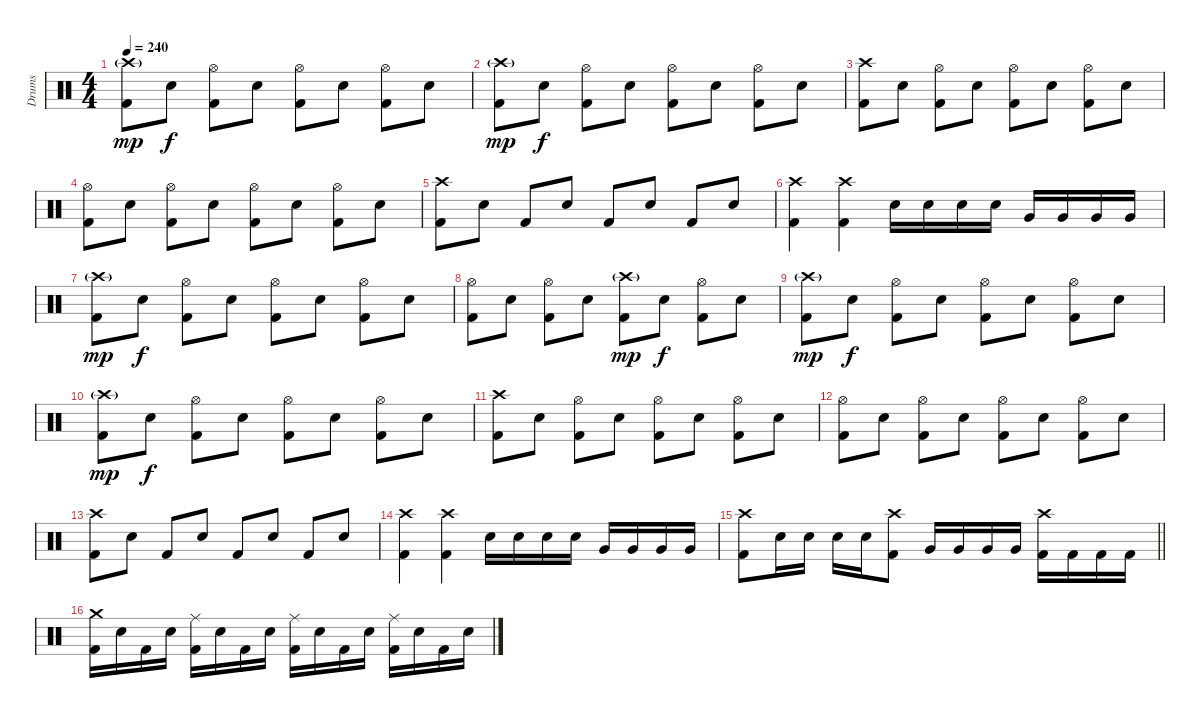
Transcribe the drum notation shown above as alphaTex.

\track ("Drums" "Drums") {instrument percussion}
\staff {score}
\articulation defaults
\ts (4 4)
\tempo 240
\clef neutral
\ks c
("Crash high (hit)"{g} "Kick (hit) 2").8{dy mp} "Snare (hit) 2".8{dy f} ("Hi-Hat (open)" "Kick (hit) 2").8 "Snare (hit) 2".8 ("Hi-Hat (open)" "Kick (hit) 2").8 "Snare (hit) 2".8 ("Hi-Hat (open)" "Kick (hit) 2").8 "Snare (hit) 2".8 |
("Crash high (hit)"{g} "Kick (hit) 2").8{dy mp} "Snare (hit) 2".8{dy f} ("Hi-Hat (open)" "Kick (hit) 2").8 "Snare (hit) 2".8 ("Hi-Hat (open)" "Kick (hit) 2").8 "Snare (hit) 2".8 ("Hi-Hat (open)" "Kick (hit) 2").8 "Snare (hit) 2".8 |
("Crash high (hit)" "Kick (hit) 2").8 "Snare (hit) 2".8 ("Hi-Hat (open)" "Kick (hit) 2").8 "Snare (hit) 2".8 ("Hi-Hat (open)" "Kick (hit) 2").8 "Snare (hit) 2".8 ("Hi-Hat (open)" "Kick (hit) 2").8 "Snare (hit) 2".8 |
("Hi-Hat (open)" "Kick (hit) 2").8 "Snare (hit) 2".8 ("Hi-Hat (open)" "Kick (hit) 2").8 "Snare (hit) 2".8 ("Hi-Hat (open)" "Kick (hit) 2").8 "Snare (hit) 2".8 ("Hi-Hat (open)" "Kick (hit) 2").8 "Snare (hit) 2".8 |
("Crash high (hit)" "Kick (hit) 2").8 "Snare (hit) 2".8 "Kick (hit) 2".8 "Snare (hit) 2".8 "Kick (hit) 2".8 "Snare (hit) 2".8 "Kick (hit) 2".8 "Snare (hit) 2".8 |
("Crash high (hit)" "Kick (hit) 2").4 ("Crash high (hit)" "Kick (hit) 2").4 "Snare (hit) 2".16 "Snare (hit) 2".16 "Snare (hit) 2".16 "Snare (hit) 2".16 "Very Low Tom (hit)".16 "Very Low Tom (hit)".16 "Very Low Tom (hit)".16 "Very Low Tom (hit)".16 |
("Crash high (hit)"{g} "Kick (hit) 2").8{dy mp} "Snare (hit) 2".8{dy f} ("Hi-Hat (open)" "Kick (hit) 2").8 "Snare (hit) 2".8 ("Hi-Hat (open)" "Kick (hit) 2").8 "Snare (hit) 2".8 ("Hi-Hat (open)" "Kick (hit) 2").8 "Snare (hit) 2".8 |
("Hi-Hat (open)" "Kick (hit) 2").8 "Snare (hit) 2".8 ("Hi-Hat (open)" "Kick (hit) 2").8 "Snare (hit) 2".8 ("Crash high (hit)"{g} "Kick (hit) 2").8{dy mp} "Snare (hit) 2".8{dy f} ("Hi-Hat (open)" "Kick (hit) 2").8 "Snare (hit) 2".8 |
("Crash high (hit)"{g} "Kick (hit) 2").8{dy mp} "Snare (hit) 2".8{dy f} ("Hi-Hat (open)" "Kick (hit) 2").8 "Snare (hit) 2".8 ("Hi-Hat (open)" "Kick (hit) 2").8 "Snare (hit) 2".8 ("Hi-Hat (open)" "Kick (hit) 2").8 "Snare (hit) 2".8 |
("Crash high (hit)"{g} "Kick (hit) 2").8{dy mp} "Snare (hit) 2".8{dy f} ("Hi-Hat (open)" "Kick (hit) 2").8 "Snare (hit) 2".8 ("Hi-Hat (open)" "Kick (hit) 2").8 "Snare (hit) 2".8 ("Hi-Hat (open)" "Kick (hit) 2").8 "Snare (hit) 2".8 |
("Crash high (hit)" "Kick (hit) 2").8 "Snare (hit) 2".8 ("Hi-Hat (open)" "Kick (hit) 2").8 "Snare (hit) 2".8 ("Hi-Hat (open)" "Kick (hit) 2").8 "Snare (hit) 2".8 ("Hi-Hat (open)" "Kick (hit) 2").8 "Snare (hit) 2".8 |
("Hi-Hat (open)" "Kick (hit) 2").8 "Snare (hit) 2".8 ("Hi-Hat (open)" "Kick (hit) 2").8 "Snare (hit) 2".8 ("Hi-Hat (open)" "Kick (hit) 2").8 "Snare (hit) 2".8 ("Hi-Hat (open)" "Kick (hit) 2").8 "Snare (hit) 2".8 |
("Crash high (hit)" "Kick (hit) 2").8 "Snare (hit) 2".8 "Kick (hit) 2".8 "Snare (hit) 2".8 "Kick (hit) 2".8 "Snare (hit) 2".8 "Kick (hit) 2".8 "Snare (hit) 2".8 |
("Crash high (hit)" "Kick (hit) 2").4 ("Crash high (hit)" "Kick (hit) 2").4 "Snare (hit) 2".16 "Snare (hit) 2".16 "Snare (hit) 2".16 "Snare (hit) 2".16 "Very Low Tom (hit)".16 "Very Low Tom (hit)".16 "Very Low Tom (hit)".16 "Very Low Tom (hit)".16 |
\barLineRight lightlight
("Crash high (hit)" "Kick (hit) 2").8 "Snare (hit) 2".16 "Snare (hit) 2".16 "Snare (hit) 2".16 "Snare (hit) 2".16 ("Crash high (hit)" "Kick (hit) 2").8 "Very Low Tom (hit)".16 "Very Low Tom (hit)".16 "Very Low Tom (hit)".16 "Very Low Tom (hit)".16 ("Crash high (hit)" "Kick (hit) 2").16 "Kick (hit) 2".16 "Kick (hit) 2".16 "Kick (hit) 2".16 |
\section ("" "")
("Crash medium (hit)" "Kick (hit) 2").16 "Snare (hit) 2".16 "Kick (hit) 2".16 "Snare (hit) 2".16 ("Ride (middle)" "Kick (hit) 2").16 "Snare (hit) 2".16 "Kick (hit) 2".16 "Snare (hit) 2".16 ("Ride (middle)" "Kick (hit) 2").16 "Snare (hit) 2".16 "Kick (hit) 2".16 "Snare (hit) 2".16 ("Ride (middle)" "Kick (hit) 2").16 "Snare (hit) 2".16 "Kick (hit) 2".16 "Snare (hit) 2".16
